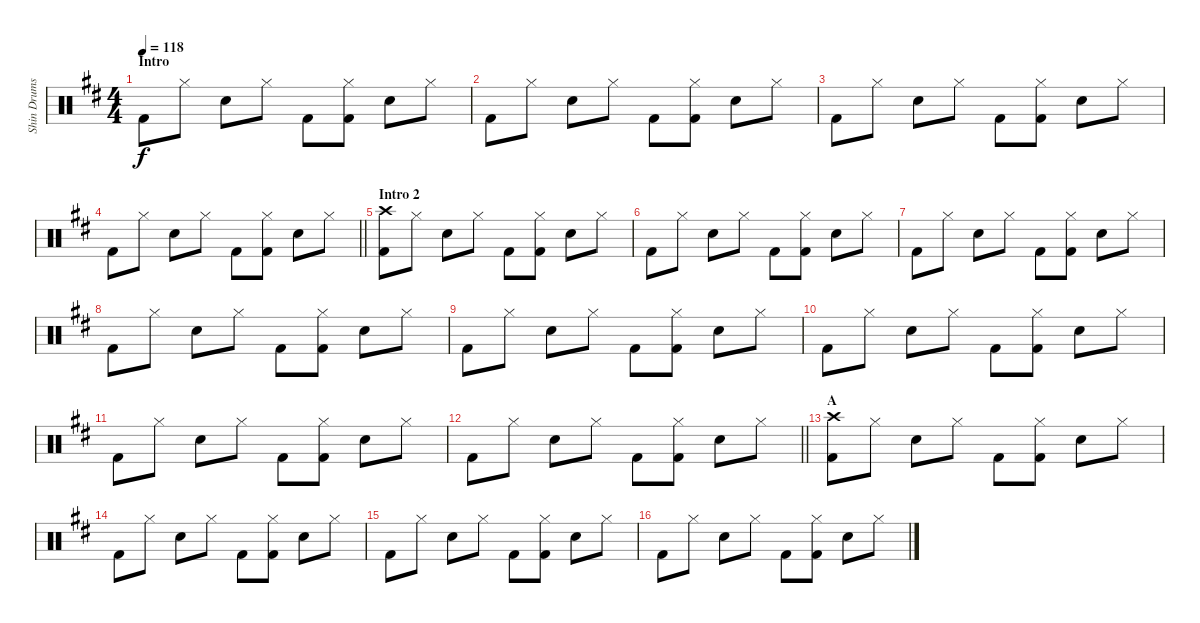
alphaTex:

\track ("Shin Drums" "Shin Drums") {instrument percussion}
\staff {score}
\articulation defaults
\ts (4 4)
\section ("" "Intro")
\tempo 118
\clef neutral
\ks d "Kick (hit) 2".8{dy f} "Hi-Hat (closed)".8 "Snare (hit) 2".8 "Hi-Hat (closed)".8 "Kick (hit) 2".8
("Hi-Hat (closed)" "Kick (hit) 2").8 "Snare (hit) 2".8 "Hi-Hat (closed)".8 |
"Kick (hit) 2".8 "Hi-Hat (closed)".8 "Snare (hit) 2".8 "Hi-Hat (closed)".8 "Kick (hit) 2".8 ("Hi-Hat (closed)" "Kick (hit) 2").8 "Snare (hit) 2".8 "Hi-Hat (closed)".8 |
"Kick (hit) 2".8 "Hi-Hat (closed)".8 "Snare (hit) 2".8 "Hi-Hat (closed)".8 "Kick (hit) 2".8 ("Hi-Hat (closed)" "Kick (hit) 2").8 "Snare (hit) 2".8 "Hi-Hat (closed)".8 |
\barLineRight lightlight "Kick (hit) 2".8 "Hi-Hat (closed)".8 "Snare (hit) 2".8 "Hi-Hat (closed)".8 "Kick (hit) 2".8
("Hi-Hat (closed)" "Kick (hit) 2").8 "Snare (hit) 2".8 "Hi-Hat (closed)".8 |
\section ("" "Intro 2")
("Crash high (hit)" "Kick (hit) 2").8 "Hi-Hat (closed)".8 "Snare (hit) 2".8 "Hi-Hat (closed)".8 "Kick (hit) 2".8 ("Hi-Hat (closed)" "Kick (hit) 2").8 "Snare (hit) 2".8 "Hi-Hat (closed)".8 |
"Kick (hit) 2".8 "Hi-Hat (closed)".8 "Snare (hit) 2".8 "Hi-Hat (closed)".8 "Kick (hit) 2".8 ("Hi-Hat (closed)" "Kick (hit) 2").8 "Snare (hit) 2".8 "Hi-Hat (closed)".8 |
"Kick (hit) 2".8 "Hi-Hat (closed)".8 "Snare (hit) 2".8 "Hi-Hat (closed)".8 "Kick (hit) 2".8 ("Hi-Hat (closed)" "Kick (hit) 2").8 "Snare (hit) 2".8 "Hi-Hat (closed)".8 |
"Kick (hit) 2".8 "Hi-Hat (closed)".8 "Snare (hit) 2".8 "Hi-Hat (closed)".8 "Kick (hit) 2".8 ("Hi-Hat (closed)" "Kick (hit) 2").8 "Snare (hit) 2".8 "Hi-Hat (closed)".8 |
"Kick (hit) 2".8 "Hi-Hat (closed)".8 "Snare (hit) 2".8 "Hi-Hat (closed)".8 "Kick (hit) 2".8 ("Hi-Hat (closed)" "Kick (hit) 2").8 "Snare (hit) 2".8 "Hi-Hat (closed)".8 |
"Kick (hit) 2".8 "Hi-Hat (closed)".8 "Snare (hit) 2".8 "Hi-Hat (closed)".8 "Kick (hit) 2".8 ("Hi-Hat (closed)" "Kick (hit) 2").8 "Snare (hit) 2".8 "Hi-Hat (closed)".8 |
"Kick (hit) 2".8 "Hi-Hat (closed)".8 "Snare (hit) 2".8 "Hi-Hat (closed)".8 "Kick (hit) 2".8 ("Hi-Hat (closed)" "Kick (hit) 2").8 "Snare (hit) 2".8 "Hi-Hat (closed)".8 |
\barLineRight lightlight "Kick (hit) 2".8 "Hi-Hat (closed)".8 "Snare (hit) 2".8 "Hi-Hat (closed)".8 "Kick (hit) 2".8
("Hi-Hat (closed)" "Kick (hit) 2").8 "Snare (hit) 2".8 "Hi-Hat (closed)".8 |
\section ("" "A")
("Crash high (hit)" "Kick (hit) 2").8 "Hi-Hat (closed)".8 "Snare (hit) 2".8 "Hi-Hat (closed)".8 "Kick (hit) 2".8 ("Hi-Hat (closed)" "Kick (hit) 2").8 "Snare (hit) 2".8 "Hi-Hat (closed)".8 |
"Kick (hit) 2".8 "Hi-Hat (closed)".8 "Snare (hit) 2".8 "Hi-Hat (closed)".8 "Kick (hit) 2".8 ("Hi-Hat (closed)" "Kick (hit) 2").8 "Snare (hit) 2".8 "Hi-Hat (closed)".8 |
"Kick (hit) 2".8 "Hi-Hat (closed)".8 "Snare (hit) 2".8 "Hi-Hat (closed)".8 "Kick (hit) 2".8 ("Hi-Hat (closed)" "Kick (hit) 2").8 "Snare (hit) 2".8 "Hi-Hat (closed)".8 |
"Kick (hit) 2".8 "Hi-Hat (closed)".8 "Snare (hit) 2".8 "Hi-Hat (closed)".8 "Kick (hit) 2".8 ("Hi-Hat (closed)" "Kick (hit) 2").8 "Snare (hit) 2".8 "Hi-Hat (closed)".8
